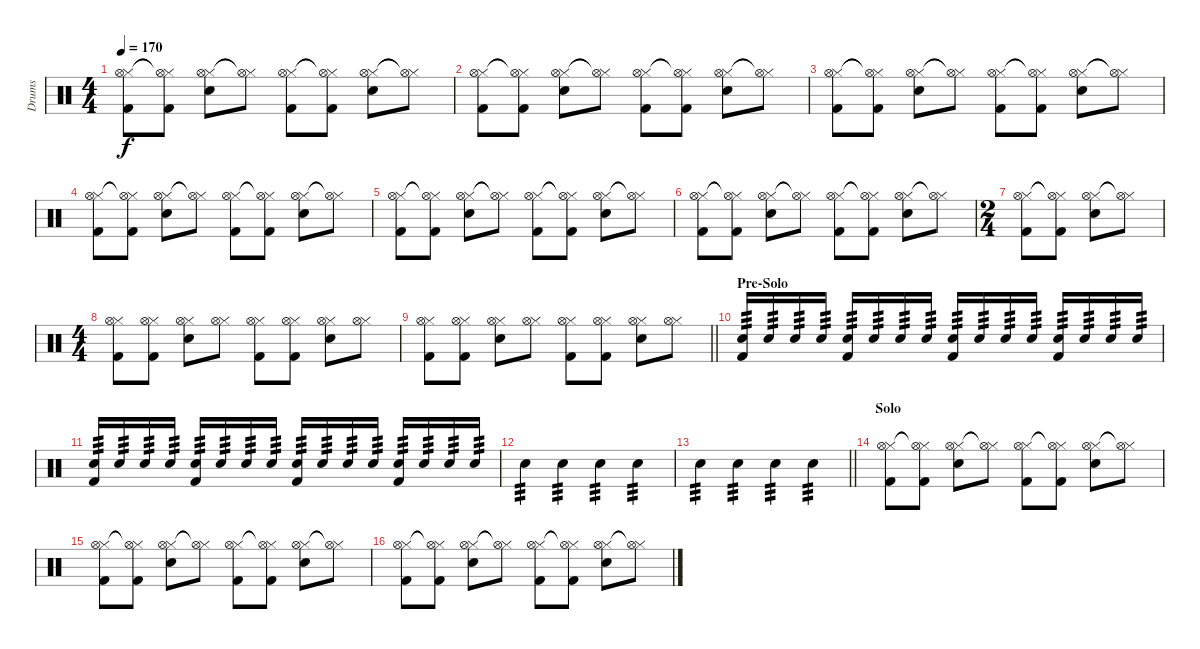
\track ("Drums" "Drums") {instrument percussion}
\staff {score}
\articulation defaults
\ts (4 4)
\tempo 170
\clef neutral
\ks c
("Hi-Hat (closed)" "Hi-Hat (open)" "Kick (hit) 2").8{dy f} ("Hi-Hat (closed)"{t} "Hi-Hat (open)"{t} "Kick (hit) 2").8 ("Hi-Hat (closed)" "Hi-Hat (open)" "Snare (hit) 2").8 ("Hi-Hat (closed)"{t} "Hi-Hat (open)"{t}).8 ("Hi-Hat (closed)" "Hi-Hat (open)" "Kick (hit) 2").8 ("Hi-Hat (closed)"{t} "Hi-Hat (open)"{t} "Kick (hit) 2").8 ("Hi-Hat (closed)" "Hi-Hat (open)" "Snare (hit) 2").8 ("Hi-Hat (closed)"{t} "Hi-Hat (open)"{t}).8 |
("Hi-Hat (closed)" "Hi-Hat (open)" "Kick (hit) 2").8 ("Hi-Hat (closed)"{t} "Hi-Hat (open)"{t} "Kick (hit) 2").8 ("Hi-Hat (closed)" "Hi-Hat (open)" "Snare (hit) 2").8 ("Hi-Hat (closed)"{t} "Hi-Hat (open)"{t}).8 ("Hi-Hat (closed)" "Hi-Hat (open)" "Kick (hit) 2").8 ("Hi-Hat (closed)"{t} "Hi-Hat (open)"{t} "Kick (hit) 2").8 ("Hi-Hat (closed)" "Hi-Hat (open)" "Snare (hit) 2").8 ("Hi-Hat (closed)"{t} "Hi-Hat (open)"{t}).8 |
("Hi-Hat (closed)" "Hi-Hat (open)" "Kick (hit) 2").8 ("Hi-Hat (closed)"{t} "Hi-Hat (open)"{t} "Kick (hit) 2").8 ("Hi-Hat (closed)" "Hi-Hat (open)" "Snare (hit) 2").8 ("Hi-Hat (closed)"{t} "Hi-Hat (open)"{t}).8 ("Hi-Hat (closed)" "Hi-Hat (open)" "Kick (hit) 2").8 ("Hi-Hat (closed)"{t} "Hi-Hat (open)"{t} "Kick (hit) 2").8 ("Hi-Hat (closed)" "Hi-Hat (open)" "Snare (hit) 2").8 ("Hi-Hat (closed)"{t} "Hi-Hat (open)"{t}).8 |
("Hi-Hat (closed)" "Hi-Hat (open)" "Kick (hit) 2").8 ("Hi-Hat (closed)"{t} "Hi-Hat (open)"{t} "Kick (hit) 2").8 ("Hi-Hat (closed)" "Hi-Hat (open)" "Snare (hit) 2").8 ("Hi-Hat (closed)"{t} "Hi-Hat (open)"{t}).8 ("Hi-Hat (closed)" "Hi-Hat (open)" "Kick (hit) 2").8 ("Hi-Hat (closed)"{t} "Hi-Hat (open)"{t} "Kick (hit) 2").8 ("Hi-Hat (closed)" "Hi-Hat (open)" "Snare (hit) 2").8 ("Hi-Hat (closed)"{t} "Hi-Hat (open)"{t}).8 |
("Hi-Hat (closed)" "Hi-Hat (open)" "Kick (hit) 2").8 ("Hi-Hat (closed)"{t} "Hi-Hat (open)"{t} "Kick (hit) 2").8 ("Hi-Hat (closed)" "Hi-Hat (open)" "Snare (hit) 2").8 ("Hi-Hat (closed)"{t} "Hi-Hat (open)"{t}).8 ("Hi-Hat (closed)" "Hi-Hat (open)" "Kick (hit) 2").8 ("Hi-Hat (closed)"{t} "Hi-Hat (open)"{t} "Kick (hit) 2").8 ("Hi-Hat (closed)" "Hi-Hat (open)" "Snare (hit) 2").8 ("Hi-Hat (closed)"{t} "Hi-Hat (open)"{t}).8 |
("Hi-Hat (closed)" "Hi-Hat (open)" "Kick (hit) 2").8 ("Hi-Hat (closed)"{t} "Hi-Hat (open)"{t} "Kick (hit) 2").8 ("Hi-Hat (closed)" "Hi-Hat (open)" "Snare (hit) 2").8 ("Hi-Hat (closed)"{t} "Hi-Hat (open)"{t}).8 ("Hi-Hat (closed)" "Hi-Hat (open)" "Kick (hit) 2").8 ("Hi-Hat (closed)"{t} "Hi-Hat (open)"{t} "Kick (hit) 2").8 ("Hi-Hat (closed)" "Hi-Hat (open)" "Snare (hit) 2").8 ("Hi-Hat (closed)"{t} "Hi-Hat (open)"{t}).8 |
\ts (2 4)
("Hi-Hat (closed)" "Hi-Hat (open)" "Kick (hit) 2").8 ("Hi-Hat (closed)"{t} "Hi-Hat (open)"{t} "Kick (hit) 2").8 ("Hi-Hat (closed)" "Hi-Hat (open)" "Snare (hit) 2").8 ("Hi-Hat (closed)"{t} "Hi-Hat (open)"{t}).8 |
\ts (4 4)
("Hi-Hat (closed)" "Hi-Hat (open)" "Kick (hit) 2").8 ("Hi-Hat (closed)" "Hi-Hat (open)" "Kick (hit) 2").8 ("Hi-Hat (closed)" "Hi-Hat (open)" "Snare (hit) 2").8 ("Hi-Hat (closed)" "Hi-Hat (open)").8 ("Hi-Hat (closed)" "Hi-Hat (open)" "Kick (hit) 2").8 ("Hi-Hat (closed)" "Hi-Hat (open)" "Kick (hit) 2").8 ("Hi-Hat (closed)" "Hi-Hat (open)" "Snare (hit) 2").8 ("Hi-Hat (closed)" "Hi-Hat (open)").8 |
\barLineRight lightlight
("Hi-Hat (closed)" "Hi-Hat (open)" "Kick (hit) 2").8 ("Hi-Hat (closed)" "Hi-Hat (open)" "Kick (hit) 2").8 ("Hi-Hat (closed)" "Hi-Hat (open)" "Snare (hit) 2").8 ("Hi-Hat (closed)" "Hi-Hat (open)").8 ("Hi-Hat (closed)" "Hi-Hat (open)" "Kick (hit) 2").8 ("Hi-Hat (closed)" "Hi-Hat (open)" "Kick (hit) 2").8 ("Hi-Hat (closed)" "Hi-Hat (open)" "Snare (hit) 2").8 ("Hi-Hat (closed)" "Hi-Hat (open)").8 |
\section ("" "Pre-Solo")
("Snare (hit) 2" "Kick (hit) 2").16{tp 3 volume 11} "Snare (hit) 2".16{tp 3} "Snare (hit) 2".16{tp 3} "Snare (hit) 2".16{tp 3} ("Snare (hit) 2" "Kick (hit) 2").16{tp 3} "Snare (hit) 2".16{tp 3} "Snare (hit) 2".16{tp 3} "Snare (hit) 2".16{tp 3} ("Snare (hit) 2" "Kick (hit) 2").16{tp 3} "Snare (hit) 2".16{tp 3} "Snare (hit) 2".16{tp 3} "Snare (hit) 2".16{tp 3} ("Snare (hit) 2" "Kick (hit) 2").16{tp 3} "Snare (hit) 2".16{tp 3} "Snare (hit) 2".16{tp 3} "Snare (hit) 2".16{tp 3} |
("Snare (hit) 2" "Kick (hit) 2").16{tp 3 volume 16} "Snare (hit) 2".16{tp 3} "Snare (hit) 2".16{tp 3} "Snare (hit) 2".16{tp 3} ("Snare (hit) 2" "Kick (hit) 2").16{tp 3} "Snare (hit) 2".16{tp 3} "Snare (hit) 2".16{tp 3} "Snare (hit) 2".16{tp 3} ("Snare (hit) 2" "Kick (hit) 2").16{tp 3} "Snare (hit) 2".16{tp 3} "Snare (hit) 2".16{tp 3} "Snare (hit) 2".16{tp 3} ("Snare (hit) 2" "Kick (hit) 2").16{tp 3} "Snare (hit) 2".16{tp 3} "Snare (hit) 2".16{tp 3} "Snare (hit) 2".16{tp 3} |
"Snare (hit) 2".4{tp 3} "Snare (hit) 2".4{tp 3} "Snare (hit) 2".4{tp 3} "Snare (hit) 2".4{tp 3} |
\barLineRight lightlight "Snare (hit) 2".4{tp 3} "Snare (hit) 2".4{tp 3} "Snare (hit) 2".4{tp 3} "Snare (hit) 2".4{tp 3}
|
\section ("" "Solo")
("Hi-Hat (closed)" "Hi-Hat (open)" "Kick (hit) 2").8 ("Hi-Hat (closed)"{t} "Hi-Hat (open)"{t} "Kick (hit) 2").8 ("Hi-Hat (closed)" "Hi-Hat (open)" "Snare (hit) 2").8 ("Hi-Hat (closed)"{t} "Hi-Hat (open)"{t}).8 ("Hi-Hat (closed)" "Hi-Hat (open)" "Kick (hit) 2").8 ("Hi-Hat (closed)"{t} "Hi-Hat (open)"{t} "Kick (hit) 2").8 ("Hi-Hat (closed)" "Hi-Hat (open)" "Snare (hit) 2").8 ("Hi-Hat (closed)"{t} "Hi-Hat (open)"{t}).8 |
("Hi-Hat (closed)" "Hi-Hat (open)" "Kick (hit) 2").8 ("Hi-Hat (closed)"{t} "Hi-Hat (open)"{t} "Kick (hit) 2").8 ("Hi-Hat (closed)" "Hi-Hat (open)" "Snare (hit) 2").8 ("Hi-Hat (closed)"{t} "Hi-Hat (open)"{t}).8 ("Hi-Hat (closed)" "Hi-Hat (open)" "Kick (hit) 2").8 ("Hi-Hat (closed)"{t} "Hi-Hat (open)"{t} "Kick (hit) 2").8 ("Hi-Hat (closed)" "Hi-Hat (open)" "Snare (hit) 2").8 ("Hi-Hat (closed)"{t} "Hi-Hat (open)"{t}).8 |
("Hi-Hat (closed)" "Hi-Hat (open)" "Kick (hit) 2").8 ("Hi-Hat (closed)"{t} "Hi-Hat (open)"{t} "Kick (hit) 2").8 ("Hi-Hat (closed)" "Hi-Hat (open)" "Snare (hit) 2").8 ("Hi-Hat (closed)"{t} "Hi-Hat (open)"{t}).8 ("Hi-Hat (closed)" "Hi-Hat (open)" "Kick (hit) 2").8 ("Hi-Hat (closed)"{t} "Hi-Hat (open)"{t} "Kick (hit) 2").8 ("Hi-Hat (closed)" "Hi-Hat (open)" "Snare (hit) 2").8 ("Hi-Hat (closed)"{t} "Hi-Hat (open)"{t}).8
